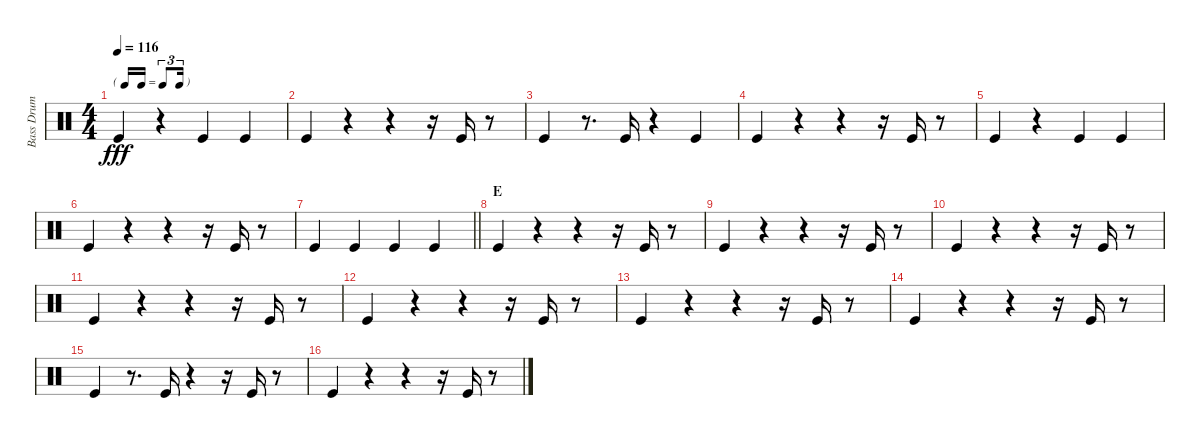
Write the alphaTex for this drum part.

\track ("Bass Drum" "Bass Drum") {instrument percussion}
\staff {score}
\articulation defaults
\ts (4 4)
\tf triplet16th
\tempo 116
\clef neutral
\ks c "Kick (hit)".4{dy fff}
r.4 "Kick (hit)".4 "Kick (hit)".4 |
"Kick (hit)".4 r.4 r.4 r.16 "Kick (hit)".16 r.8 |
"Kick (hit)".4 r.8{d} "Kick (hit)".16 r.4 "Kick (hit)".4 |
"Kick (hit)".4 r.4 r.4 r.16 "Kick (hit)".16 r.8 |
"Kick (hit)".4 r.4 "Kick (hit)".4 "Kick (hit)".4 |
"Kick (hit)".4 r.4 r.4 r.16 "Kick (hit)".16 r.8 |
\barLineRight lightlight "Kick (hit)".4 "Kick (hit)".4 "Kick (hit)".4 "Kick (hit)".4
|
\section ("" "E")
"Kick (hit)".4 r.4 r.4 r.16 "Kick (hit)".16 r.8 |
"Kick (hit)".4 r.4 r.4 r.16 "Kick (hit)".16 r.8 |
"Kick (hit)".4 r.4 r.4 r.16 "Kick (hit)".16 r.8 |
"Kick (hit)".4 r.4 r.4 r.16 "Kick (hit)".16 r.8 |
"Kick (hit)".4 r.4 r.4 r.16 "Kick (hit)".16 r.8 |
"Kick (hit)".4 r.4 r.4 r.16 "Kick (hit)".16 r.8 |
"Kick (hit)".4 r.4 r.4 r.16 "Kick (hit)".16 r.8 |
"Kick (hit)".4 r.8{d} "Kick (hit)".16 r.4 r.16 "Kick (hit)".16 r.8 |
"Kick (hit)".4 r.4 r.4 r.16 "Kick (hit)".16 r.8
